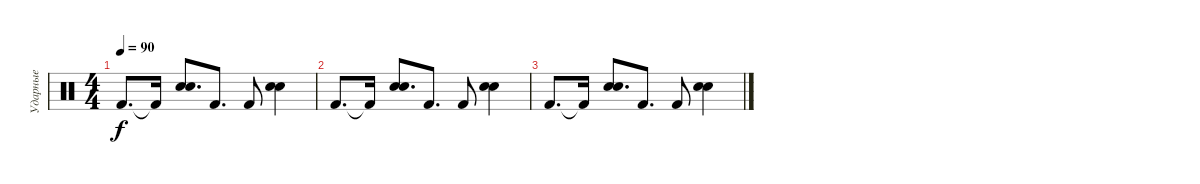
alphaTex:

\track ("Ударные" "Ударные") {instrument percussion}
\staff {score}
\articulation defaults
\ts (4 4)
\tempo 90
\clef neutral
\ks c "Kick (hit) 2".8{d dy f} "Kick (hit) 2"{t}.16
("Hand Clap (hit)" "Snare (hit) 2").8{d} "Kick (hit) 2".8{d} "Kick (hit) 2".8 ("Hand Clap (hit)" "Snare (hit) 2").4 |
"Kick (hit) 2".8{d} "Kick (hit) 2"{t}.16 ("Hand Clap (hit)" "Snare (hit) 2").8{d} "Kick (hit) 2".8{d} "Kick (hit) 2".8 ("Hand Clap (hit)" "Snare (hit) 2").4 |
"Kick (hit) 2".8{d} "Kick (hit) 2"{t}.16 ("Hand Clap (hit)" "Snare (hit) 2").8{d} "Kick (hit) 2".8{d} "Kick (hit) 2".8 ("Hand Clap (hit)" "Snare (hit) 2").4
